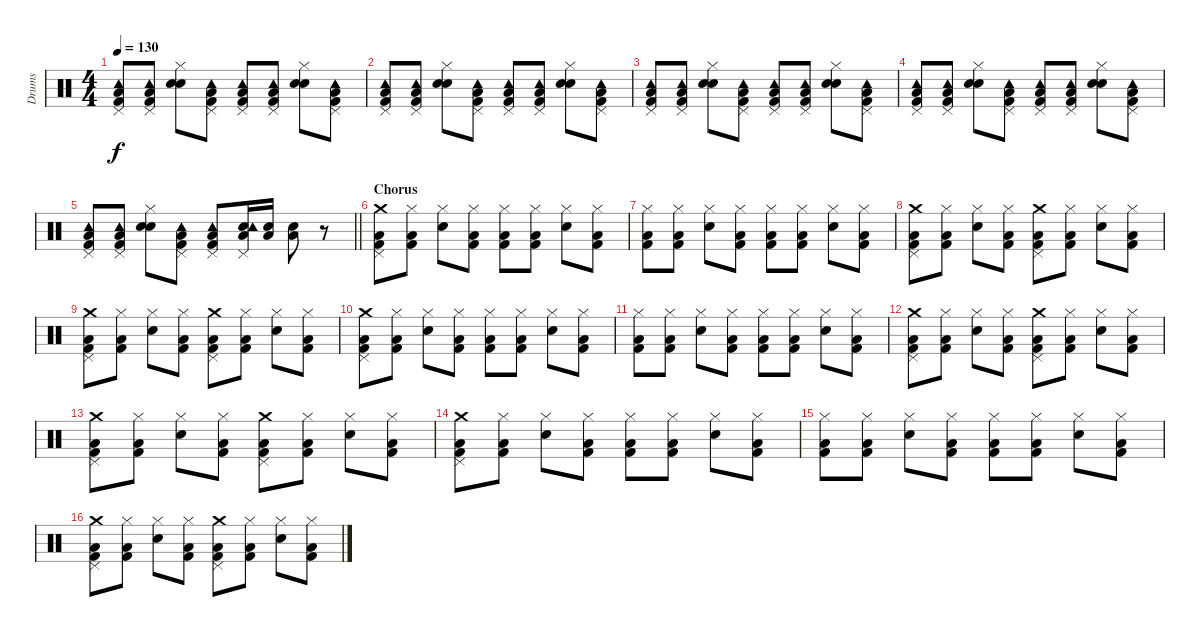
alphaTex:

\track ("Drums" "Drums") {instrument percussion}
\staff {score}
\articulation defaults
\ts (4 4)
\tempo 130
\clef neutral
\ks c
("Kick (hit) 2" "Low Floor Tom (hit)" "Pedal Hi-Hat (hit)" "Tambourine (hit)").8{dy f volume 13} ("Kick (hit) 2" "Low Floor Tom (hit)" "Pedal Hi-Hat (hit)" "Tambourine (hit)").8 ("Electric Snare (hit)" "Hand Clap (hit)" "Hi-Hat (closed)").8 ("Kick (hit) 2" "Low Floor Tom (hit)" "Pedal Hi-Hat (hit)" "Tambourine (hit)").8 ("Kick (hit) 2" "Low Floor Tom (hit)" "Pedal Hi-Hat (hit)" "Tambourine (hit)").8 ("Kick (hit) 2" "Low Floor Tom (hit)" "Pedal Hi-Hat (hit)" "Tambourine (hit)").8 ("Electric Snare (hit)" "Hand Clap (hit)" "Hi-Hat (closed)").8 ("Kick (hit) 2" "Low Floor Tom (hit)" "Pedal Hi-Hat (hit)" "Tambourine (hit)").8 |
("Kick (hit) 2" "Low Floor Tom (hit)" "Pedal Hi-Hat (hit)" "Tambourine (hit)").8{volume 13} ("Kick (hit) 2" "Low Floor Tom (hit)" "Pedal Hi-Hat (hit)" "Tambourine (hit)").8 ("Electric Snare (hit)" "Hand Clap (hit)" "Hi-Hat (closed)").8 ("Kick (hit) 2" "Low Floor Tom (hit)" "Pedal Hi-Hat (hit)" "Tambourine (hit)").8 ("Kick (hit) 2" "Low Floor Tom (hit)" "Pedal Hi-Hat (hit)" "Tambourine (hit)").8 ("Kick (hit) 2" "Low Floor Tom (hit)" "Pedal Hi-Hat (hit)" "Tambourine (hit)").8 ("Electric Snare (hit)" "Hand Clap (hit)" "Hi-Hat (closed)").8 ("Kick (hit) 2" "Low Floor Tom (hit)" "Pedal Hi-Hat (hit)" "Tambourine (hit)").8 |
("Kick (hit) 2" "Low Floor Tom (hit)" "Pedal Hi-Hat (hit)" "Tambourine (hit)").8{volume 13} ("Kick (hit) 2" "Low Floor Tom (hit)" "Pedal Hi-Hat (hit)" "Tambourine (hit)").8 ("Electric Snare (hit)" "Hand Clap (hit)" "Hi-Hat (closed)").8 ("Kick (hit) 2" "Low Floor Tom (hit)" "Pedal Hi-Hat (hit)" "Tambourine (hit)").8 ("Kick (hit) 2" "Low Floor Tom (hit)" "Pedal Hi-Hat (hit)" "Tambourine (hit)").8 ("Kick (hit) 2" "Low Floor Tom (hit)" "Pedal Hi-Hat (hit)" "Tambourine (hit)").8 ("Electric Snare (hit)" "Hand Clap (hit)" "Hi-Hat (closed)").8 ("Kick (hit) 2" "Low Floor Tom (hit)" "Pedal Hi-Hat (hit)" "Tambourine (hit)").8 |
("Kick (hit) 2" "Low Floor Tom (hit)" "Pedal Hi-Hat (hit)" "Tambourine (hit)").8{volume 13} ("Kick (hit) 2" "Low Floor Tom (hit)" "Pedal Hi-Hat (hit)" "Tambourine (hit)").8 ("Electric Snare (hit)" "Hand Clap (hit)" "Hi-Hat (closed)").8 ("Kick (hit) 2" "Low Floor Tom (hit)" "Pedal Hi-Hat (hit)" "Tambourine (hit)").8 ("Kick (hit) 2" "Low Floor Tom (hit)" "Pedal Hi-Hat (hit)" "Tambourine (hit)").8 ("Kick (hit) 2" "Low Floor Tom (hit)" "Pedal Hi-Hat (hit)" "Tambourine (hit)").8 ("Electric Snare (hit)" "Hand Clap (hit)" "Hi-Hat (closed)").8 ("Kick (hit) 2" "Low Floor Tom (hit)" "Pedal Hi-Hat (hit)" "Tambourine (hit)").8 |
\barLineRight lightlight
("Kick (hit) 2" "Low Floor Tom (hit)" "Pedal Hi-Hat (hit)" "Tambourine (hit)").8{volume 13} ("Kick (hit) 2" "Low Floor Tom (hit)" "Pedal Hi-Hat (hit)" "Tambourine (hit)").8 ("Electric Snare (hit)" "Hand Clap (hit)" "Hi-Hat (closed)").8 ("Kick (hit) 2" "Low Floor Tom (hit)" "Pedal Hi-Hat (hit)" "Tambourine (hit)").8 ("Kick (hit) 2" "Low Floor Tom (hit)" "Pedal Hi-Hat (hit)" "Tambourine (hit)").8 ("Electric Snare (hit)" "Low Floor Tom (hit)" "Pedal Hi-Hat (hit)" "Tambourine (hit)").16 ("Electric Snare (hit)" "Low Floor Tom (hit)").16 ("Electric Snare (hit)" "Low Floor Tom (hit)").8 r.8 |
\section ("" "Chorus")
("Kick (hit) 2" "Low Floor Tom (hit)" "Pedal Hi-Hat (hit)" "Crash medium (hit)").8 ("Kick (hit) 2" "Low Floor Tom (hit)" "Hi-Hat (closed)").8 ("Electric Snare (hit)" "Hi-Hat (closed)").8 ("Kick (hit) 2" "Low Floor Tom (hit)" "Hi-Hat (closed)").8 ("Kick (hit) 2" "Low Floor Tom (hit)" "Hi-Hat (closed)").8 ("Kick (hit) 2" "Low Floor Tom (hit)" "Hi-Hat (closed)").8 ("Electric Snare (hit)" "Hi-Hat (closed)").8 ("Kick (hit) 2" "Low Floor Tom (hit)" "Hi-Hat (closed)").8 |
("Kick (hit) 2" "Low Floor Tom (hit)" "Hi-Hat (closed)").8 ("Kick (hit) 2" "Low Floor Tom (hit)" "Hi-Hat (closed)").8 ("Electric Snare (hit)" "Hi-Hat (closed)").8 ("Kick (hit) 2" "Low Floor Tom (hit)" "Hi-Hat (closed)").8 ("Kick (hit) 2" "Low Floor Tom (hit)" "Hi-Hat (closed)").8 ("Kick (hit) 2" "Low Floor Tom (hit)" "Hi-Hat (closed)").8 ("Electric Snare (hit)" "Hi-Hat (closed)").8 ("Kick (hit) 2" "Low Floor Tom (hit)" "Hi-Hat (closed)").8 |
("Kick (hit) 2" "Low Floor Tom (hit)" "Pedal Hi-Hat (hit)" "Crash medium (hit)").8 ("Kick (hit) 2" "Low Floor Tom (hit)" "Hi-Hat (closed)").8 ("Electric Snare (hit)" "Hi-Hat (closed)").8 ("Kick (hit) 2" "Low Floor Tom (hit)" "Hi-Hat (closed)").8 ("Kick (hit) 2" "Low Floor Tom (hit)" "Pedal Hi-Hat (hit)" "Crash medium (hit)").8 ("Kick (hit) 2" "Low Floor Tom (hit)" "Hi-Hat (closed)").8 ("Electric Snare (hit)" "Hi-Hat (closed)").8 ("Kick (hit) 2" "Low Floor Tom (hit)" "Hi-Hat (closed)").8 |
("Kick (hit) 2" "Low Floor Tom (hit)" "Pedal Hi-Hat (hit)" "Crash medium (hit)").8 ("Kick (hit) 2" "Low Floor Tom (hit)" "Hi-Hat (closed)").8 ("Electric Snare (hit)" "Hi-Hat (closed)").8 ("Kick (hit) 2" "Low Floor Tom (hit)" "Hi-Hat (closed)").8 ("Kick (hit) 2" "Low Floor Tom (hit)" "Pedal Hi-Hat (hit)" "Crash medium (hit)").8 ("Kick (hit) 2" "Low Floor Tom (hit)" "Hi-Hat (closed)").8 ("Electric Snare (hit)" "Hi-Hat (closed)").8 ("Kick (hit) 2" "Low Floor Tom (hit)" "Hi-Hat (closed)").8 |
("Kick (hit) 2" "Low Floor Tom (hit)" "Pedal Hi-Hat (hit)" "Crash medium (hit)").8 ("Kick (hit) 2" "Low Floor Tom (hit)" "Hi-Hat (closed)").8 ("Electric Snare (hit)" "Hi-Hat (closed)").8 ("Kick (hit) 2" "Low Floor Tom (hit)" "Hi-Hat (closed)").8 ("Kick (hit) 2" "Low Floor Tom (hit)" "Hi-Hat (closed)").8 ("Kick (hit) 2" "Low Floor Tom (hit)" "Hi-Hat (closed)").8 ("Electric Snare (hit)" "Hi-Hat (closed)").8 ("Kick (hit) 2" "Low Floor Tom (hit)" "Hi-Hat (closed)").8 |
("Kick (hit) 2" "Low Floor Tom (hit)" "Hi-Hat (closed)").8 ("Kick (hit) 2" "Low Floor Tom (hit)" "Hi-Hat (closed)").8 ("Electric Snare (hit)" "Hi-Hat (closed)").8 ("Kick (hit) 2" "Low Floor Tom (hit)" "Hi-Hat (closed)").8 ("Kick (hit) 2" "Low Floor Tom (hit)" "Hi-Hat (closed)").8 ("Kick (hit) 2" "Low Floor Tom (hit)" "Hi-Hat (closed)").8 ("Electric Snare (hit)" "Hi-Hat (closed)").8 ("Kick (hit) 2" "Low Floor Tom (hit)" "Hi-Hat (closed)").8 |
("Kick (hit) 2" "Low Floor Tom (hit)" "Pedal Hi-Hat (hit)" "Crash medium (hit)").8 ("Kick (hit) 2" "Low Floor Tom (hit)" "Hi-Hat (closed)").8 ("Electric Snare (hit)" "Hi-Hat (closed)").8 ("Kick (hit) 2" "Low Floor Tom (hit)" "Hi-Hat (closed)").8 ("Kick (hit) 2" "Low Floor Tom (hit)" "Pedal Hi-Hat (hit)" "Crash medium (hit)").8 ("Kick (hit) 2" "Low Floor Tom (hit)" "Hi-Hat (closed)").8 ("Electric Snare (hit)" "Hi-Hat (closed)").8 ("Kick (hit) 2" "Low Floor Tom (hit)" "Hi-Hat (closed)").8 |
("Kick (hit) 2" "Low Floor Tom (hit)" "Pedal Hi-Hat (hit)" "Crash medium (hit)").8 ("Kick (hit) 2" "Low Floor Tom (hit)" "Hi-Hat (closed)").8 ("Electric Snare (hit)" "Hi-Hat (closed)").8 ("Kick (hit) 2" "Low Floor Tom (hit)" "Hi-Hat (closed)").8 ("Kick (hit) 2" "Low Floor Tom (hit)" "Pedal Hi-Hat (hit)" "Crash medium (hit)").8 ("Kick (hit) 2" "Low Floor Tom (hit)" "Hi-Hat (closed)").8 ("Electric Snare (hit)" "Hi-Hat (closed)").8 ("Kick (hit) 2" "Low Floor Tom (hit)" "Hi-Hat (closed)").8 |
("Kick (hit) 2" "Low Floor Tom (hit)" "Pedal Hi-Hat (hit)" "Crash medium (hit)").8 ("Kick (hit) 2" "Low Floor Tom (hit)" "Hi-Hat (closed)").8 ("Electric Snare (hit)" "Hi-Hat (closed)").8 ("Kick (hit) 2" "Low Floor Tom (hit)" "Hi-Hat (closed)").8 ("Kick (hit) 2" "Low Floor Tom (hit)" "Hi-Hat (closed)").8 ("Kick (hit) 2" "Low Floor Tom (hit)" "Hi-Hat (closed)").8 ("Electric Snare (hit)" "Hi-Hat (closed)").8 ("Kick (hit) 2" "Low Floor Tom (hit)" "Hi-Hat (closed)").8 |
("Kick (hit) 2" "Low Floor Tom (hit)" "Hi-Hat (closed)").8 ("Kick (hit) 2" "Low Floor Tom (hit)" "Hi-Hat (closed)").8 ("Electric Snare (hit)" "Hi-Hat (closed)").8 ("Kick (hit) 2" "Low Floor Tom (hit)" "Hi-Hat (closed)").8 ("Kick (hit) 2" "Low Floor Tom (hit)" "Hi-Hat (closed)").8 ("Kick (hit) 2" "Low Floor Tom (hit)" "Hi-Hat (closed)").8 ("Electric Snare (hit)" "Hi-Hat (closed)").8 ("Kick (hit) 2" "Low Floor Tom (hit)" "Hi-Hat (closed)").8 |
("Kick (hit) 2" "Low Floor Tom (hit)" "Pedal Hi-Hat (hit)" "Crash medium (hit)").8 ("Kick (hit) 2" "Low Floor Tom (hit)" "Hi-Hat (closed)").8 ("Electric Snare (hit)" "Hi-Hat (closed)").8 ("Kick (hit) 2" "Low Floor Tom (hit)" "Hi-Hat (closed)").8 ("Kick (hit) 2" "Low Floor Tom (hit)" "Pedal Hi-Hat (hit)" "Crash medium (hit)").8 ("Kick (hit) 2" "Low Floor Tom (hit)" "Hi-Hat (closed)").8 ("Electric Snare (hit)" "Hi-Hat (closed)").8 ("Kick (hit) 2" "Low Floor Tom (hit)" "Hi-Hat (closed)").8
